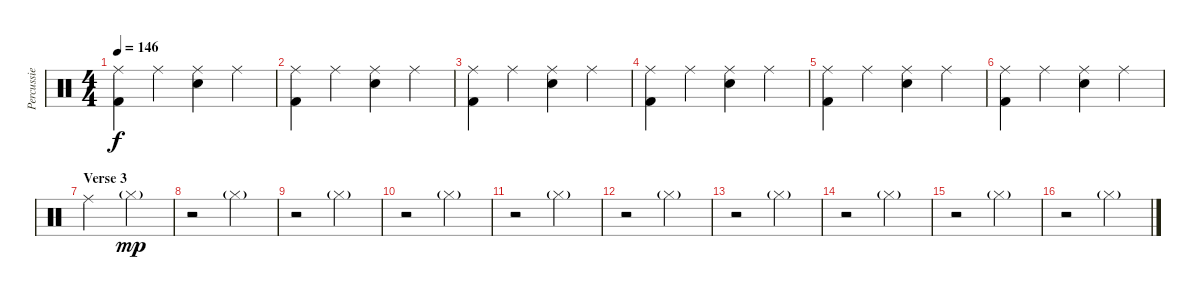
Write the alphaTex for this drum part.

\track ("Percussie" "Percussie") {instrument percussion}
\staff {score}
\articulation defaults
\ts (4 4)
\tempo 146
\clef neutral
\ks c
("Ride (middle)" "Kick (hit) 2").4{dy f} "Ride (middle)".4 ("Ride (middle)" "Snare (hit) 2").4 "Ride (middle)".4 |
("Ride (middle)" "Kick (hit) 2").4 "Ride (middle)".4 ("Ride (middle)" "Snare (hit) 2").4 "Ride (middle)".4 |
("Ride (middle)" "Kick (hit) 2").4 "Ride (middle)".4 ("Ride (middle)" "Snare (hit) 2").4 "Ride (middle)".4 |
("Ride (middle)" "Kick (hit) 2").4 "Ride (middle)".4 ("Ride (middle)" "Snare (hit) 2").4 "Ride (middle)".4 |
("Ride (middle)" "Kick (hit) 2").4 "Ride (middle)".4 ("Ride (middle)" "Snare (hit) 2").4 "Ride (middle)".4 |
("Ride (middle)" "Kick (hit) 2").4 "Ride (middle)".4 ("Ride (middle)" "Snare (hit) 2").4 "Ride (middle)".4 |
\section ("" "Verse 3")
"Ride (middle)".2 "Hi-Hat (closed)"{g}.2{dy mp} |
r.2 "Hi-Hat (closed)"{g}.2 |
r.2 "Hi-Hat (closed)"{g}.2 |
r.2 "Hi-Hat (closed)"{g}.2 |
r.2 "Hi-Hat (closed)"{g}.2 |
r.2 "Hi-Hat (closed)"{g}.2 |
r.2 "Hi-Hat (closed)"{g}.2 |
r.2 "Hi-Hat (closed)"{g}.2 |
r.2 "Hi-Hat (closed)"{g}.2 |
r.2 "Hi-Hat (closed)"{g}.2
